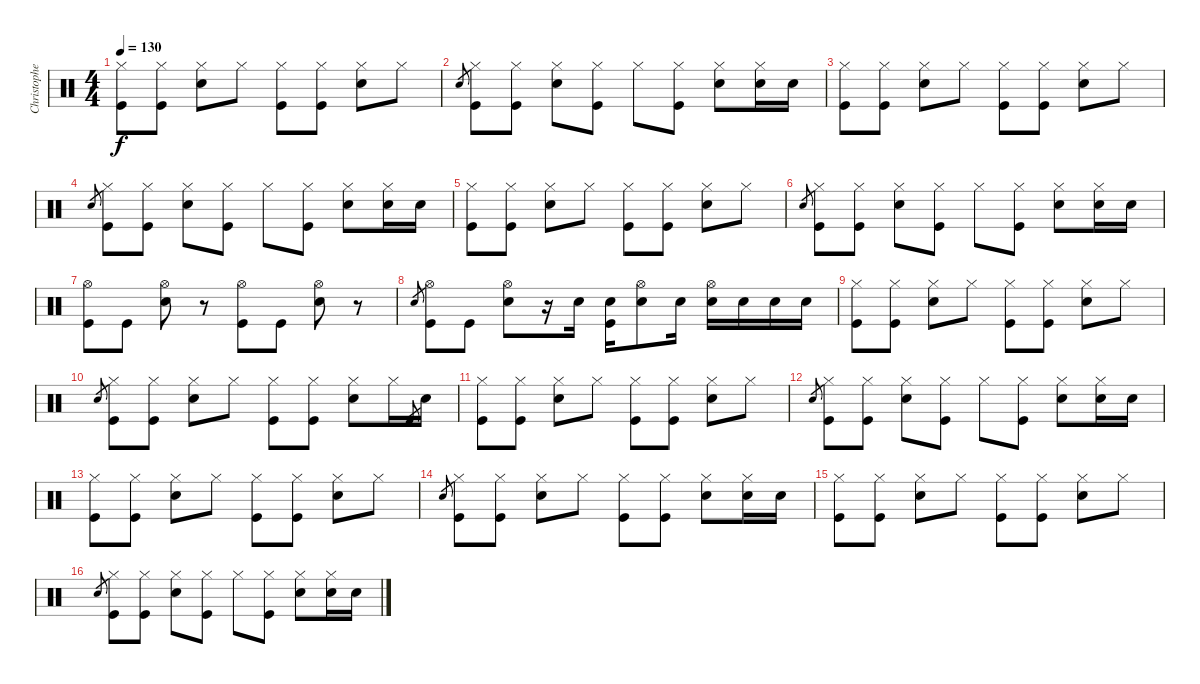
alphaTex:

\track ("Christopher - Drums" "Christophe") {instrument percussion}
\staff {score}
\articulation defaults
\ts (4 4)
\tempo 130
\clef neutral
\ks c
("Hi-Hat (closed)" "Kick (hit)").8{dy f} ("Hi-Hat (closed)" "Kick (hit)").8 ("Hi-Hat (closed)" "Snare (hit) 2").8 "Hi-Hat (closed)".8 ("Hi-Hat (closed)" "Kick (hit)").8 ("Hi-Hat (closed)" "Kick (hit)").8 ("Hi-Hat (closed)" "Snare (hit) 2").8 "Hi-Hat (closed)".8 |
"Snare (hit) 2".8{gr} ("Hi-Hat (closed)" "Kick (hit)").8 ("Hi-Hat (closed)" "Kick (hit)").8 ("Hi-Hat (closed)" "Snare (hit) 2").8 ("Hi-Hat (closed)" "Kick (hit)").8 "Hi-Hat (closed)".8 ("Hi-Hat (closed)" "Kick (hit)").8 ("Hi-Hat (closed)" "Snare (hit) 2").8 ("Hi-Hat (closed)" "Snare (hit) 2").16 "Snare (hit) 2".16 |
("Hi-Hat (closed)" "Kick (hit)").8 ("Hi-Hat (closed)" "Kick (hit)").8 ("Hi-Hat (closed)" "Snare (hit) 2").8 "Hi-Hat (closed)".8 ("Hi-Hat (closed)" "Kick (hit)").8 ("Hi-Hat (closed)" "Kick (hit)").8 ("Hi-Hat (closed)" "Snare (hit) 2").8 "Hi-Hat (closed)".8 |
"Snare (hit) 2".8{gr} ("Hi-Hat (closed)" "Kick (hit)").8 ("Hi-Hat (closed)" "Kick (hit)").8 ("Hi-Hat (closed)" "Snare (hit) 2").8 ("Hi-Hat (closed)" "Kick (hit)").8 "Hi-Hat (closed)".8 ("Hi-Hat (closed)" "Kick (hit)").8 ("Hi-Hat (closed)" "Snare (hit) 2").8 ("Hi-Hat (closed)" "Snare (hit) 2").16 "Snare (hit) 2".16 |
("Hi-Hat (closed)" "Kick (hit)").8 ("Hi-Hat (closed)" "Kick (hit)").8 ("Hi-Hat (closed)" "Snare (hit) 2").8 "Hi-Hat (closed)".8 ("Hi-Hat (closed)" "Kick (hit)").8 ("Hi-Hat (closed)" "Kick (hit)").8 ("Hi-Hat (closed)" "Snare (hit) 2").8 "Hi-Hat (closed)".8 |
"Snare (hit) 2".8{gr} ("Hi-Hat (closed)" "Kick (hit)").8 ("Hi-Hat (closed)" "Kick (hit)").8 ("Hi-Hat (closed)" "Snare (hit) 2").8 ("Hi-Hat (closed)" "Kick (hit)").8 "Hi-Hat (closed)".8 ("Hi-Hat (closed)" "Kick (hit)").8 ("Hi-Hat (closed)" "Snare (hit) 2").8 ("Hi-Hat (closed)" "Snare (hit) 2").16 "Snare (hit) 2".16 |
("Hi-Hat (open)" "Kick (hit)").8 "Kick (hit)".8 ("Hi-Hat (open)" "Snare (hit) 2").8 r.8 ("Hi-Hat (open)" "Kick (hit)").8 "Kick (hit)".8 ("Hi-Hat (open)" "Snare (hit) 2").8 r.8 |
"Snare (hit) 2".8{gr} ("Hi-Hat (open)" "Kick (hit)").8 "Kick (hit)".8 ("Hi-Hat (open)" "Snare (hit) 2").8 r.16 "Snare (hit) 2".16 ("Snare (hit) 2" "Kick (hit)").16 ("Hi-Hat (open)" "Snare (hit) 2").8 "Snare (hit) 2".16 ("Hi-Hat (open)" "Snare (hit) 2").16 "Snare (hit) 2".16 "Snare (hit) 2".16 "Snare (hit) 2".16 |
("Hi-Hat (closed)" "Kick (hit)").8 ("Hi-Hat (closed)" "Kick (hit)").8 ("Hi-Hat (closed)" "Snare (hit) 2").8 "Hi-Hat (closed)".8 ("Hi-Hat (closed)" "Kick (hit)").8 ("Hi-Hat (closed)" "Kick (hit)").8 ("Hi-Hat (closed)" "Snare (hit) 2").8 "Hi-Hat (closed)".8 |
"Snare (hit) 2".8{gr} ("Hi-Hat (closed)" "Kick (hit)").8 ("Hi-Hat (closed)" "Kick (hit)").8 ("Hi-Hat (closed)" "Snare (hit) 2").8 "Hi-Hat (closed)".8 ("Hi-Hat (closed)" "Kick (hit)").8 ("Hi-Hat (closed)" "Kick (hit)").8 ("Hi-Hat (closed)" "Snare (hit) 2").8 "Hi-Hat (closed)".16 "Kick (hit)".8{gr} "Snare (hit) 2".16 |
("Hi-Hat (closed)" "Kick (hit)").8 ("Hi-Hat (closed)" "Kick (hit)").8 ("Hi-Hat (closed)" "Snare (hit) 2").8 "Hi-Hat (closed)".8 ("Hi-Hat (closed)" "Kick (hit)").8 ("Hi-Hat (closed)" "Kick (hit)").8 ("Hi-Hat (closed)" "Snare (hit) 2").8 "Hi-Hat (closed)".8 |
"Snare (hit) 2".8{gr} ("Hi-Hat (closed)" "Kick (hit)").8 ("Hi-Hat (closed)" "Kick (hit)").8 ("Hi-Hat (closed)" "Snare (hit) 2").8 ("Hi-Hat (closed)" "Kick (hit)").8 "Hi-Hat (closed)".8 ("Hi-Hat (closed)" "Kick (hit)").8 ("Hi-Hat (closed)" "Snare (hit) 2").8 ("Hi-Hat (closed)" "Snare (hit) 2").16 "Snare (hit) 2".16 |
("Hi-Hat (closed)" "Kick (hit)").8 ("Hi-Hat (closed)" "Kick (hit)").8 ("Hi-Hat (closed)" "Snare (hit) 2").8 "Hi-Hat (closed)".8 ("Hi-Hat (closed)" "Kick (hit)").8 ("Hi-Hat (closed)" "Kick (hit)").8 ("Hi-Hat (closed)" "Snare (hit) 2").8 "Hi-Hat (closed)".8 |
"Snare (hit) 2".8{gr} ("Hi-Hat (closed)" "Kick (hit)").8 ("Hi-Hat (closed)" "Kick (hit)").8 ("Hi-Hat (closed)" "Snare (hit) 2").8 "Hi-Hat (closed)".8 ("Hi-Hat (closed)" "Kick (hit)").8 ("Hi-Hat (closed)" "Kick (hit)").8 ("Hi-Hat (closed)" "Snare (hit) 2").8 ("Hi-Hat (closed)" "Snare (hit) 2").16 "Snare (hit) 2".16 |
("Hi-Hat (closed)" "Kick (hit)").8 ("Hi-Hat (closed)" "Kick (hit)").8 ("Hi-Hat (closed)" "Snare (hit) 2").8 "Hi-Hat (closed)".8 ("Hi-Hat (closed)" "Kick (hit)").8 ("Hi-Hat (closed)" "Kick (hit)").8 ("Hi-Hat (closed)" "Snare (hit) 2").8 "Hi-Hat (closed)".8 |
"Snare (hit) 2".8{gr} ("Hi-Hat (closed)" "Kick (hit)").8 ("Hi-Hat (closed)" "Kick (hit)").8 ("Hi-Hat (closed)" "Snare (hit) 2").8 ("Hi-Hat (closed)" "Kick (hit)").8 "Hi-Hat (closed)".8 ("Hi-Hat (closed)" "Kick (hit)").8 ("Hi-Hat (closed)" "Snare (hit) 2").8 ("Hi-Hat (closed)" "Snare (hit) 2").16 "Snare (hit) 2".16
